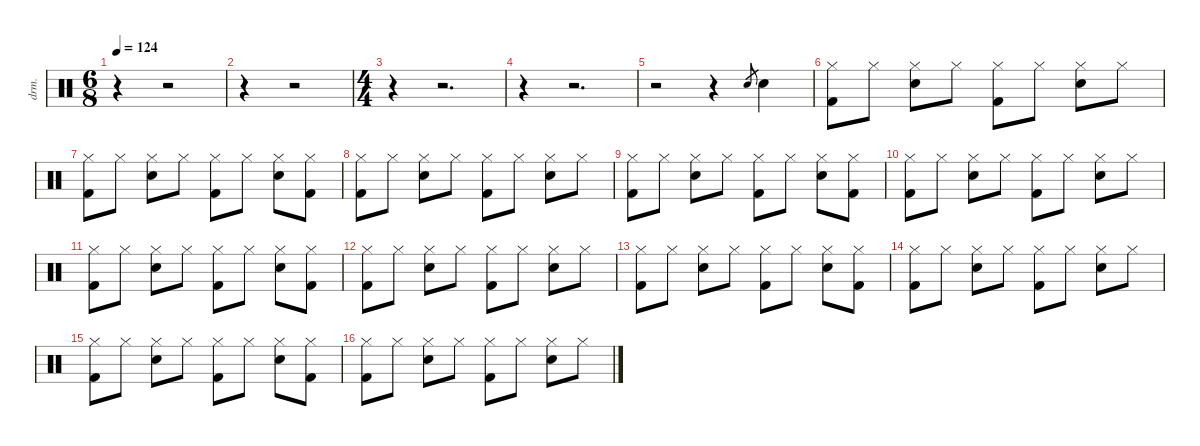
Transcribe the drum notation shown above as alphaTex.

\defaultSystemsLayout 4
\hideDynamics
\bracketExtendMode nobrackets
\otherSystemsTrackNameOrientation horizontal
\track ("Drums" "drm.") {instrument percussion}
\staff {score}
\articulation defaults
\ts (6 8)
\beaming (8 3 3)
\tempo 124
\clef neutral
\ks c
r.4{dy mf} r.2 |
r.4 r.2 |
\ts (4 4)
\beaming (8 2 2 2 2)
r.4 r.2{d} |
r.4 r.2{d} |
r.2 r.4 "Snare (hit) 2".8{gr} "Snare (hit) 2".4{dy f} |
("Hi-Hat (closed)" "Kick (hit) 2").8 "Hi-Hat (closed)".8 ("Hi-Hat (closed)" "Snare (hit) 2").8 "Hi-Hat (closed)".8 ("Hi-Hat (closed)" "Kick (hit) 2").8 "Hi-Hat (closed)".8 ("Hi-Hat (closed)" "Snare (hit) 2").8 "Hi-Hat (closed)".8 |
("Hi-Hat (closed)" "Kick (hit) 2").8 "Hi-Hat (closed)".8 ("Hi-Hat (closed)" "Snare (hit) 2").8 "Hi-Hat (closed)".8 ("Hi-Hat (closed)" "Kick (hit) 2").8 "Hi-Hat (closed)".8 ("Hi-Hat (closed)" "Snare (hit) 2").8 ("Hi-Hat (closed)" "Kick (hit) 2").8 |
("Hi-Hat (closed)" "Kick (hit) 2").8 "Hi-Hat (closed)".8 ("Hi-Hat (closed)" "Snare (hit) 2").8 "Hi-Hat (closed)".8 ("Hi-Hat (closed)" "Kick (hit) 2").8 "Hi-Hat (closed)".8 ("Hi-Hat (closed)" "Snare (hit) 2").8 "Hi-Hat (closed)".8 |
("Hi-Hat (closed)" "Kick (hit) 2").8 "Hi-Hat (closed)".8 ("Hi-Hat (closed)" "Snare (hit) 2").8 "Hi-Hat (closed)".8 ("Hi-Hat (closed)" "Kick (hit) 2").8 "Hi-Hat (closed)".8 ("Hi-Hat (closed)" "Snare (hit) 2").8 ("Hi-Hat (closed)" "Kick (hit) 2").8 |
("Hi-Hat (closed)" "Kick (hit) 2").8 "Hi-Hat (closed)".8 ("Hi-Hat (closed)" "Snare (hit) 2").8 "Hi-Hat (closed)".8 ("Hi-Hat (closed)" "Kick (hit) 2").8 "Hi-Hat (closed)".8 ("Hi-Hat (closed)" "Snare (hit) 2").8 "Hi-Hat (closed)".8 |
("Hi-Hat (closed)" "Kick (hit) 2").8 "Hi-Hat (closed)".8 ("Hi-Hat (closed)" "Snare (hit) 2").8 "Hi-Hat (closed)".8 ("Hi-Hat (closed)" "Kick (hit) 2").8 "Hi-Hat (closed)".8 ("Hi-Hat (closed)" "Snare (hit) 2").8 ("Hi-Hat (closed)" "Kick (hit) 2").8 |
("Hi-Hat (closed)" "Kick (hit) 2").8 "Hi-Hat (closed)".8 ("Hi-Hat (closed)" "Snare (hit) 2").8 "Hi-Hat (closed)".8 ("Hi-Hat (closed)" "Kick (hit) 2").8 "Hi-Hat (closed)".8 ("Hi-Hat (closed)" "Snare (hit) 2").8 "Hi-Hat (closed)".8 |
("Hi-Hat (closed)" "Kick (hit) 2").8 "Hi-Hat (closed)".8 ("Hi-Hat (closed)" "Snare (hit) 2").8 "Hi-Hat (closed)".8 ("Hi-Hat (closed)" "Kick (hit) 2").8 "Hi-Hat (closed)".8 ("Hi-Hat (closed)" "Snare (hit) 2").8 ("Hi-Hat (closed)" "Kick (hit) 2").8 |
("Hi-Hat (closed)" "Kick (hit) 2").8 "Hi-Hat (closed)".8 ("Hi-Hat (closed)" "Snare (hit) 2").8 "Hi-Hat (closed)".8 ("Hi-Hat (closed)" "Kick (hit) 2").8 "Hi-Hat (closed)".8 ("Hi-Hat (closed)" "Snare (hit) 2").8 "Hi-Hat (closed)".8 |
("Hi-Hat (closed)" "Kick (hit) 2").8 "Hi-Hat (closed)".8 ("Hi-Hat (closed)" "Snare (hit) 2").8 "Hi-Hat (closed)".8 ("Hi-Hat (closed)" "Kick (hit) 2").8 "Hi-Hat (closed)".8 ("Hi-Hat (closed)" "Snare (hit) 2").8 ("Hi-Hat (closed)" "Kick (hit) 2").8 |
("Hi-Hat (closed)" "Kick (hit) 2").8 "Hi-Hat (closed)".8 ("Hi-Hat (closed)" "Snare (hit) 2").8 "Hi-Hat (closed)".8 ("Hi-Hat (closed)" "Kick (hit) 2").8 "Hi-Hat (closed)".8 ("Hi-Hat (closed)" "Snare (hit) 2").8 "Hi-Hat (closed)".8
